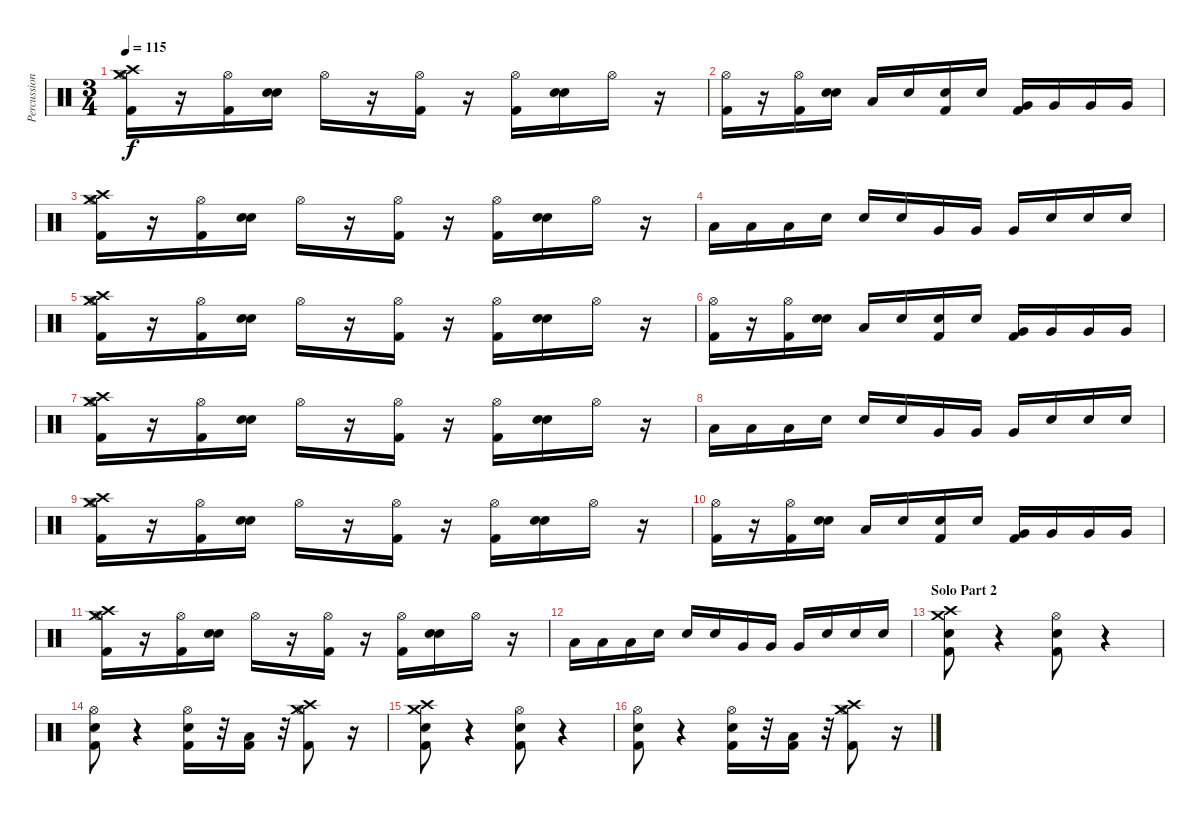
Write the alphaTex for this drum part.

\track ("Percussion" "Percussion") {instrument percussion}
\staff {score}
\articulation defaults
\ts (3 4)
\tempo 115
\clef neutral
\ks c
("Hi-Hat (open)" "Crash high (hit)" "Crash medium (hit)" "Kick (hit) 2").16{dy f} r.16 ("Hi-Hat (open)" "Kick (hit) 2").16 ("Snare (hit) 2" "Snare (hit) 2").16 "Hi-Hat (open)".16 r.16 ("Hi-Hat (open)" "Kick (hit) 2").16 r.16 ("Hi-Hat (open)" "Kick (hit) 2").16 ("Snare (hit) 2" "Snare (hit) 2").16 "Hi-Hat (open)".16 r.16 |
("Hi-Hat (open)" "Kick (hit) 2").16 r.16 ("Hi-Hat (open)" "Kick (hit) 2").16 ("Snare (hit) 2" "Snare (hit) 2").16 "Low Tom (hit)".16 "Snare (hit) 2".16 ("Snare (hit) 2" "Kick (hit) 2").16 "Snare (hit) 2".16 ("Very Low Tom (hit)" "Kick (hit) 2").16 "Very Low Tom (hit)".16 "Very Low Tom (hit)".16 "Very Low Tom (hit)".16 |
("Hi-Hat (open)" "Crash high (hit)" "Crash medium (hit)" "Kick (hit) 2").16 r.16 ("Hi-Hat (open)" "Kick (hit) 2").16 ("Snare (hit) 2" "Snare (hit) 2").16 "Hi-Hat (open)".16 r.16 ("Hi-Hat (open)" "Kick (hit) 2").16 r.16 ("Hi-Hat (open)" "Kick (hit) 2").16 ("Snare (hit) 2" "Snare (hit) 2").16 "Hi-Hat (open)".16 r.16 |
"Low Tom (hit)".16 "Low Tom (hit)".16 "Low Tom (hit)".16 "Snare (hit) 2".16 "Snare (hit) 2".16 "Snare (hit) 2".16 "Very Low Tom (hit)".16 "Very Low Tom (hit)".16 "Very Low Tom (hit)".16 "Snare (hit) 2".16 "Snare (hit) 2".16 "Snare (hit) 2".16 |
("Hi-Hat (open)" "Crash medium (hit)" "Crash high (hit)" "Kick (hit) 2").16 r.16 ("Hi-Hat (open)" "Kick (hit) 2").16 ("Snare (hit) 2" "Snare (hit) 2").16 "Hi-Hat (open)".16 r.16 ("Hi-Hat (open)" "Kick (hit) 2").16 r.16 ("Hi-Hat (open)" "Kick (hit) 2").16 ("Snare (hit) 2" "Snare (hit) 2").16 "Hi-Hat (open)".16 r.16 |
("Hi-Hat (open)" "Kick (hit) 2").16 r.16 ("Hi-Hat (open)" "Kick (hit) 2").16 ("Snare (hit) 2" "Snare (hit) 2").16 "Low Tom (hit)".16 "Snare (hit) 2".16 ("Snare (hit) 2" "Kick (hit) 2").16 "Snare (hit) 2".16 ("Very Low Tom (hit)" "Kick (hit) 2").16 "Very Low Tom (hit)".16 "Very Low Tom (hit)".16 "Very Low Tom (hit)".16 |
("Hi-Hat (open)" "Crash medium (hit)" "Crash high (hit)" "Kick (hit) 2").16 r.16 ("Hi-Hat (open)" "Kick (hit) 2").16 ("Snare (hit) 2" "Snare (hit) 2").16 "Hi-Hat (open)".16 r.16 ("Hi-Hat (open)" "Kick (hit) 2").16 r.16 ("Hi-Hat (open)" "Kick (hit) 2").16 ("Snare (hit) 2" "Snare (hit) 2").16 "Hi-Hat (open)".16 r.16 |
"Low Tom (hit)".16 "Low Tom (hit)".16 "Low Tom (hit)".16 "Snare (hit) 2".16 "Snare (hit) 2".16 "Snare (hit) 2".16 "Very Low Tom (hit)".16 "Very Low Tom (hit)".16 "Very Low Tom (hit)".16 "Snare (hit) 2".16 "Snare (hit) 2".16 "Snare (hit) 2".16 |
("Hi-Hat (open)" "Crash medium (hit)" "Crash high (hit)" "Kick (hit) 2").16 r.16 ("Hi-Hat (open)" "Kick (hit) 2").16 ("Snare (hit) 2" "Snare (hit) 2").16 "Hi-Hat (open)".16 r.16 ("Hi-Hat (open)" "Kick (hit) 2").16 r.16 ("Hi-Hat (open)" "Kick (hit) 2").16 ("Snare (hit) 2" "Snare (hit) 2").16 "Hi-Hat (open)".16 r.16 |
("Hi-Hat (open)" "Kick (hit) 2").16 r.16 ("Hi-Hat (open)" "Kick (hit) 2").16 ("Snare (hit) 2" "Snare (hit) 2").16 "Low Tom (hit)".16 "Snare (hit) 2".16 ("Snare (hit) 2" "Kick (hit) 2").16 "Snare (hit) 2".16 ("Very Low Tom (hit)" "Kick (hit) 2").16 "Very Low Tom (hit)".16 "Very Low Tom (hit)".16 "Very Low Tom (hit)".16 |
("Hi-Hat (open)" "Crash medium (hit)" "Crash high (hit)" "Kick (hit) 2").16 r.16 ("Hi-Hat (open)" "Kick (hit) 2").16 ("Snare (hit) 2" "Snare (hit) 2").16 "Hi-Hat (open)".16 r.16 ("Hi-Hat (open)" "Kick (hit) 2").16 r.16 ("Hi-Hat (open)" "Kick (hit) 2").16 ("Snare (hit) 2" "Snare (hit) 2").16 "Hi-Hat (open)".16 r.16 |
"Low Tom (hit)".16 "Low Tom (hit)".16 "Low Tom (hit)".16 "Snare (hit) 2".16 "Snare (hit) 2".16 "Snare (hit) 2".16 "Very Low Tom (hit)".16 "Very Low Tom (hit)".16 "Very Low Tom (hit)".16 "Snare (hit) 2".16 "Snare (hit) 2".16 "Snare (hit) 2".16 |
\section ("" "Solo Part 2")
("Crash high (hit)" "Crash medium (hit)" "Snare (hit) 2" "Kick (hit) 2").8 r.4 ("Hi-Hat (open)" "Snare (hit) 2" "Kick (hit) 2").8 r.4 |
("Hi-Hat (open)" "Snare (hit) 2" "Kick (hit) 2").8 r.4 ("Hi-Hat (open)" "Snare (hit) 2" "Kick (hit) 2").16 r.32 ("Low Tom (hit)" "Kick (hit) 2").16 r.32 ("Hi-Hat (open)" "Crash medium (hit)" "Crash high (hit)" "Kick (hit) 2").8 r.16 |
("Crash high (hit)" "Crash medium (hit)" "Snare (hit) 2" "Kick (hit) 2").8 r.4 ("Hi-Hat (open)" "Snare (hit) 2" "Kick (hit) 2").8 r.4 |
("Hi-Hat (open)" "Snare (hit) 2" "Kick (hit) 2").8 r.4 ("Hi-Hat (open)" "Snare (hit) 2" "Kick (hit) 2").16 r.32 ("Low Tom (hit)" "Kick (hit) 2").16 r.32 ("Hi-Hat (open)" "Crash medium (hit)" "Crash high (hit)" "Kick (hit) 2").8 r.16
